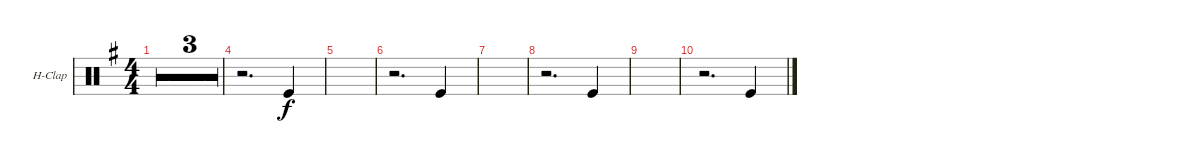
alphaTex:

\bracketExtendMode groupsimilarinstruments
\firstSystemTrackNameOrientation horizontal
\otherSystemsTrackNameOrientation horizontal
\track ("Hand Clap" "H-Clap") {multiBarRest instrument percussion}
\staff {score}
\articulation defaults
\ts (4 4)
\tempo 128
\clef neutral
\ks eminor
|
|
|
r.2{d} "Kick (hit)".4 |
|
r.2{d} "Kick (hit)".4 |
|
r.2{d} "Kick (hit)".4 |
|
r.2{d} "Kick (hit)".4
